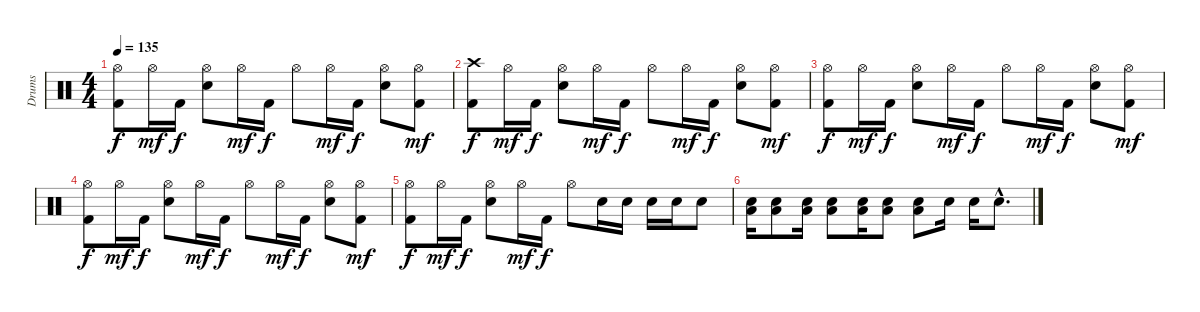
\track ("Drums" "Drums") {instrument percussion}
\staff {score}
\articulation defaults
\ts (4 4)
\tempo 135
\clef neutral
\ks c
("Hi-Hat (open)" "Kick (hit) 2").8{dy f} "Hi-Hat (open)".16{dy mf} "Kick (hit) 2".16{dy f} ("Hi-Hat (open)" "Electric Snare (hit)").8 "Hi-Hat (open)".16{dy mf} "Kick (hit) 2".16{dy f} "Hi-Hat (open)".8 "Hi-Hat (open)".16{dy mf} "Kick (hit) 2".16{dy f} ("Hi-Hat (open)" "Electric Snare (hit)").8 ("Hi-Hat (open)" "Kick (hit) 2").8{dy mf} |
("Crash high (hit)" "Kick (hit) 2").8{dy f} "Hi-Hat (open)".16{dy mf} "Kick (hit) 2".16{dy f} ("Hi-Hat (open)" "Electric Snare (hit)").8 "Hi-Hat (open)".16{dy mf} "Kick (hit) 2".16{dy f} "Hi-Hat (open)".8 "Hi-Hat (open)".16{dy mf} "Kick (hit) 2".16{dy f} ("Hi-Hat (open)" "Electric Snare (hit)").8 ("Hi-Hat (open)" "Kick (hit) 2").8{dy mf} |
("Hi-Hat (open)" "Kick (hit) 2").8{dy f} "Hi-Hat (open)".16{dy mf} "Kick (hit) 2".16{dy f} ("Hi-Hat (open)" "Electric Snare (hit)").8 "Hi-Hat (open)".16{dy mf} "Kick (hit) 2".16{dy f} "Hi-Hat (open)".8 "Hi-Hat (open)".16{dy mf} "Kick (hit) 2".16{dy f} ("Hi-Hat (open)" "Electric Snare (hit)").8 ("Hi-Hat (open)" "Kick (hit) 2").8{dy mf} |
("Hi-Hat (open)" "Kick (hit) 2").8{dy f} "Hi-Hat (open)".16{dy mf} "Kick (hit) 2".16{dy f} ("Hi-Hat (open)" "Electric Snare (hit)").8 "Hi-Hat (open)".16{dy mf} "Kick (hit) 2".16{dy f} "Hi-Hat (open)".8 "Hi-Hat (open)".16{dy mf} "Kick (hit) 2".16{dy f} ("Hi-Hat (open)" "Electric Snare (hit)").8 ("Hi-Hat (open)" "Kick (hit) 2").8{dy mf} |
("Hi-Hat (open)" "Kick (hit) 2").8{dy f} "Hi-Hat (open)".16{dy mf} "Kick (hit) 2".16{dy f} ("Hi-Hat (open)" "Electric Snare (hit)").8 "Hi-Hat (open)".16{dy mf} "Kick (hit) 2".16{dy f} "Hi-Hat (open)".8 "Electric Snare (hit)".16 "Electric Snare (hit)".16 "Electric Snare (hit)".16 "Electric Snare (hit)".16 "Electric Snare (hit)".8 |
("Electric Snare (hit)" "Low Floor Tom (hit)").16 ("Electric Snare (hit)" "Low Floor Tom (hit)").8 ("Electric Snare (hit)" "Low Floor Tom (hit)").16 ("Electric Snare (hit)" "Low Floor Tom (hit)").8 ("Electric Snare (hit)" "Low Floor Tom (hit)").16 ("Electric Snare (hit)" "Low Floor Tom (hit)").8 ("Electric Snare (hit)" "Low Floor Tom (hit)").8 "Electric Snare (hit)".16 "Electric Snare (hit)".16 "Electric Snare (hit)"{hac}.8{d}
